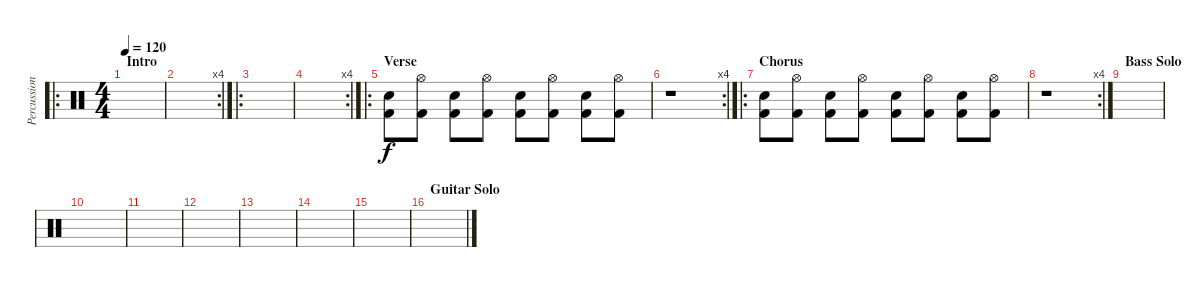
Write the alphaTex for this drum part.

\track ("Percussion" "Percussion") {instrument percussion}
\staff {score}
\articulation defaults
\ro
\ts (4 4)
\section ("" "Intro")
\tempo 120
\clef neutral
\ks c
|
\rc 4
|
\ro
|
\rc 4
|
\ro
\section ("" "Verse")
("Electric Snare (hit)" "Kick (hit) 2").8 ("Hi-Hat (open)" "Kick (hit) 2").8 ("Electric Snare (hit)" "Kick (hit) 2").8 ("Hi-Hat (open)" "Kick (hit) 2").8 ("Electric Snare (hit)" "Kick (hit) 2").8 ("Hi-Hat (open)" "Kick (hit) 2").8 ("Electric Snare (hit)" "Kick (hit) 2").8 ("Hi-Hat (open)" "Kick (hit) 2").8 |
\rc 4
r.1 |
\ro
\section ("" "Chorus")
("Electric Snare (hit)" "Kick (hit) 2").8 ("Hi-Hat (open)" "Kick (hit) 2").8 ("Electric Snare (hit)" "Kick (hit) 2").8 ("Hi-Hat (open)" "Kick (hit) 2").8 ("Electric Snare (hit)" "Kick (hit) 2").8 ("Hi-Hat (open)" "Kick (hit) 2").8 ("Electric Snare (hit)" "Kick (hit) 2").8 ("Hi-Hat (open)" "Kick (hit) 2").8 |
\rc 4
r.1 |
\section ("" "Bass Solo")
|
|
|
|
|
|
|
\section ("" "Guitar Solo")
